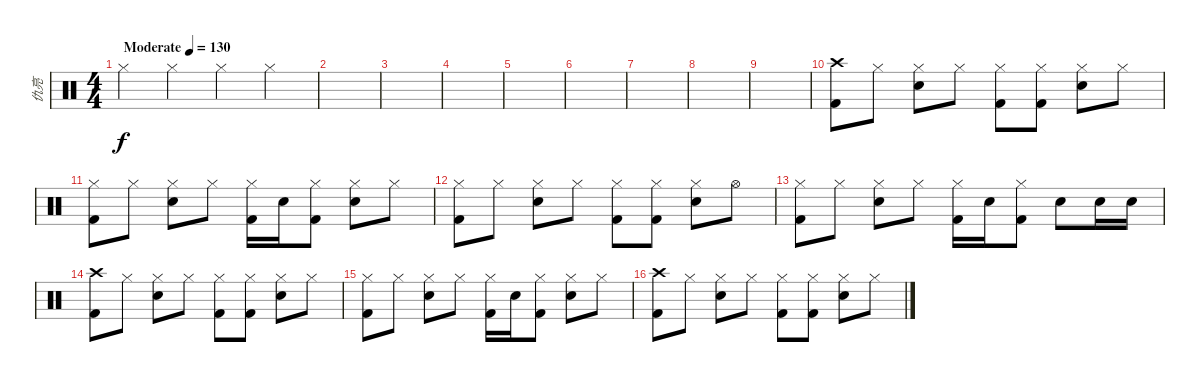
\track ("仇亮" "仇亮") {instrument percussion}
\staff {score}
\articulation defaults
\ts (4 4)
\tempo (130 "Moderate")
\clef neutral
\ks c "Hi-Hat (closed)".4{dy f} "Hi-Hat (closed)".4 "Hi-Hat (closed)".4 "Hi-Hat (closed)".4
|
|
|
|
|
|
|
|
|
("Crash high (hit)" "Kick (hit) 2").8 "Hi-Hat (closed)".8 ("Hi-Hat (closed)" "Electric Snare (hit)").8 "Hi-Hat (closed)".8 ("Hi-Hat (closed)" "Kick (hit) 2").8 ("Hi-Hat (closed)" "Kick (hit) 2").8 ("Hi-Hat (closed)" "Electric Snare (hit)").8 "Hi-Hat (closed)".8 |
("Hi-Hat (closed)" "Kick (hit) 2").8 "Hi-Hat (closed)".8 ("Hi-Hat (closed)" "Electric Snare (hit)").8 "Hi-Hat (closed)".8 ("Hi-Hat (closed)" "Kick (hit) 2").16 "Electric Snare (hit)".16 ("Hi-Hat (closed)" "Kick (hit) 2").8 ("Hi-Hat (closed)" "Electric Snare (hit)").8 "Hi-Hat (closed)".8 |
("Hi-Hat (closed)" "Kick (hit) 2").8 "Hi-Hat (closed)".8 ("Hi-Hat (closed)" "Electric Snare (hit)").8 "Hi-Hat (closed)".8 ("Hi-Hat (closed)" "Kick (hit) 2").8 ("Hi-Hat (closed)" "Kick (hit) 2").8 ("Hi-Hat (closed)" "Electric Snare (hit)").8 "Hi-Hat (open)".8 |
("Hi-Hat (closed)" "Kick (hit) 2").8 "Hi-Hat (closed)".8 ("Hi-Hat (closed)" "Electric Snare (hit)").8 "Hi-Hat (closed)".8 ("Hi-Hat (closed)" "Kick (hit) 2").16 "Electric Snare (hit)".16 ("Hi-Hat (closed)" "Kick (hit) 2").8 "Electric Snare (hit)".8 "Electric Snare (hit)".16 "Electric Snare (hit)".16 |
("Crash high (hit)" "Kick (hit) 2").8 "Hi-Hat (closed)".8 ("Hi-Hat (closed)" "Electric Snare (hit)").8 "Hi-Hat (closed)".8 ("Hi-Hat (closed)" "Kick (hit) 2").8 ("Hi-Hat (closed)" "Kick (hit) 2").8 ("Hi-Hat (closed)" "Electric Snare (hit)").8 "Hi-Hat (closed)".8 |
("Hi-Hat (closed)" "Kick (hit) 2").8 "Hi-Hat (closed)".8 ("Hi-Hat (closed)" "Electric Snare (hit)").8 "Hi-Hat (closed)".8 ("Hi-Hat (closed)" "Kick (hit) 2").16 "Electric Snare (hit)".16 ("Hi-Hat (closed)" "Kick (hit) 2").8 ("Hi-Hat (closed)" "Electric Snare (hit)").8 "Hi-Hat (closed)".8 |
("Crash high (hit)" "Kick (hit) 2").8 "Hi-Hat (closed)".8 ("Hi-Hat (closed)" "Electric Snare (hit)").8 "Hi-Hat (closed)".8 ("Hi-Hat (closed)" "Kick (hit) 2").8 ("Hi-Hat (closed)" "Kick (hit) 2").8 ("Hi-Hat (closed)" "Electric Snare (hit)").8 "Hi-Hat (closed)".8
